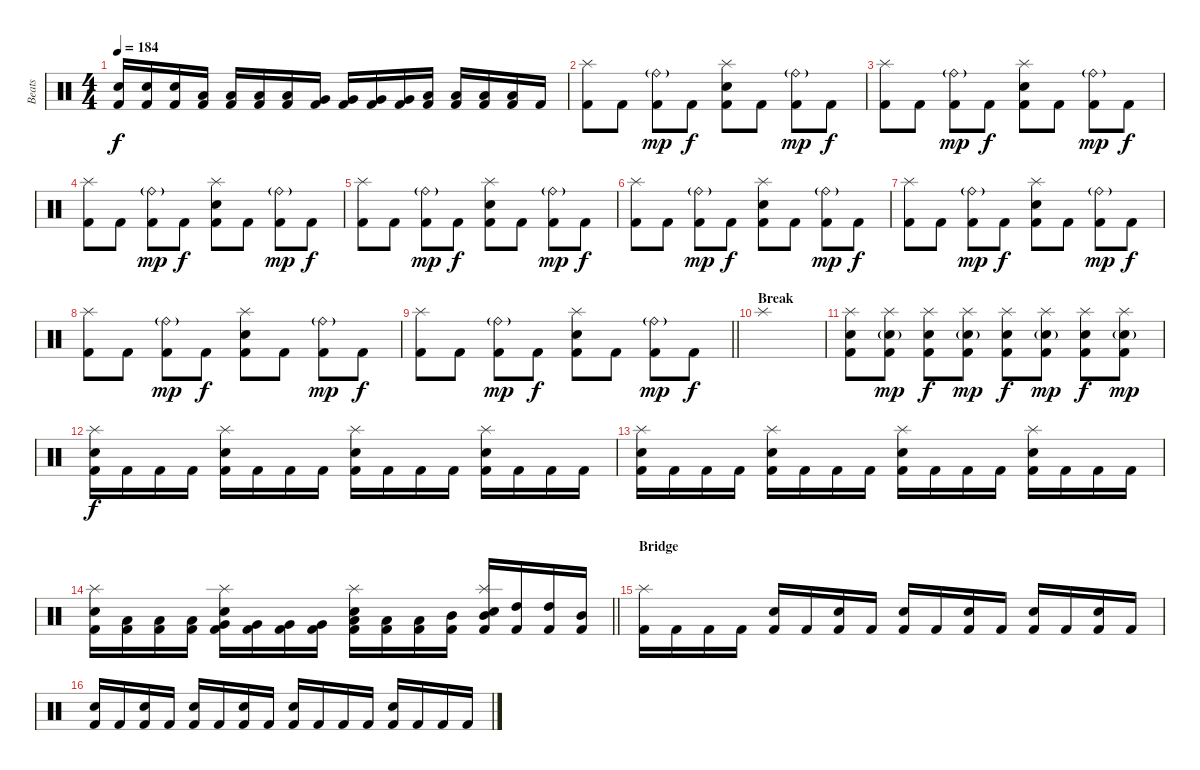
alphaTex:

\track ("Beats" "Beats") {instrument percussion}
\staff {score}
\articulation defaults
\ts (4 4)
\tempo 184
\clef neutral
\ks c
("Electric Snare (hit)" "Kick (hit) 2").16{dy f} ("Electric Snare (hit)" "Kick (hit) 2").16 ("Electric Snare (hit)" "Kick (hit) 2").16 ("Low Floor Tom (hit)" "Kick (hit) 2").16 ("Low Floor Tom (hit)" "Kick (hit) 2").16 ("Low Floor Tom (hit)" "Kick (hit) 2").16 ("Low Floor Tom (hit)" "Kick (hit) 2").16 ("Very Low Tom (hit)" "Kick (hit) 2").16 ("Very Low Tom (hit)" "Kick (hit) 2").16 ("Very Low Tom (hit)" "Kick (hit) 2").16 ("Very Low Tom (hit)" "Kick (hit) 2").16 ("Low Tom (hit)" "Kick (hit) 2").16 ("Low Tom (hit)" "Kick (hit) 2").16 ("Low Tom (hit)" "Kick (hit) 2").16 ("Low Tom (hit)" "Kick (hit) 2").16 "Kick (hit) 2".16 |
("Splash (hit)" "Kick (hit) 2").8 "Kick (hit) 2".8 ("Ride (bell)"{g} "Kick (hit) 2").8{dy mp} "Kick (hit) 2".8{dy f} ("Splash (hit)" "Electric Snare (hit)" "Kick (hit) 2").8 "Kick (hit) 2".8 ("Ride (bell)"{g} "Kick (hit) 2").8{dy mp} "Kick (hit) 2".8{dy f} |
("Splash (hit)" "Kick (hit) 2").8 "Kick (hit) 2".8 ("Ride (bell)"{g} "Kick (hit) 2").8{dy mp} "Kick (hit) 2".8{dy f} ("Splash (hit)" "Electric Snare (hit)" "Kick (hit) 2").8 "Kick (hit) 2".8 ("Ride (bell)"{g} "Kick (hit) 2").8{dy mp} "Kick (hit) 2".8{dy f} |
("Splash (hit)" "Kick (hit) 2").8 "Kick (hit) 2".8 ("Ride (bell)"{g} "Kick (hit) 2").8{dy mp} "Kick (hit) 2".8{dy f} ("Splash (hit)" "Electric Snare (hit)" "Kick (hit) 2").8 "Kick (hit) 2".8 ("Ride (bell)"{g} "Kick (hit) 2").8{dy mp} "Kick (hit) 2".8{dy f} |
("Splash (hit)" "Kick (hit) 2").8 "Kick (hit) 2".8 ("Ride (bell)"{g} "Kick (hit) 2").8{dy mp} "Kick (hit) 2".8{dy f} ("Splash (hit)" "Electric Snare (hit)" "Kick (hit) 2").8 "Kick (hit) 2".8 ("Ride (bell)"{g} "Kick (hit) 2").8{dy mp} "Kick (hit) 2".8{dy f} |
("Splash (hit)" "Kick (hit) 2").8 "Kick (hit) 2".8 ("Ride (bell)"{g} "Kick (hit) 2").8{dy mp} "Kick (hit) 2".8{dy f} ("Splash (hit)" "Electric Snare (hit)" "Kick (hit) 2").8 "Kick (hit) 2".8 ("Ride (bell)"{g} "Kick (hit) 2").8{dy mp} "Kick (hit) 2".8{dy f} |
("Splash (hit)" "Kick (hit) 2").8 "Kick (hit) 2".8 ("Ride (bell)"{g} "Kick (hit) 2").8{dy mp} "Kick (hit) 2".8{dy f} ("Splash (hit)" "Electric Snare (hit)" "Kick (hit) 2").8 "Kick (hit) 2".8 ("Ride (bell)"{g} "Kick (hit) 2").8{dy mp} "Kick (hit) 2".8{dy f} |
("Splash (hit)" "Kick (hit) 2").8 "Kick (hit) 2".8 ("Ride (bell)"{g} "Kick (hit) 2").8{dy mp} "Kick (hit) 2".8{dy f} ("Splash (hit)" "Electric Snare (hit)" "Kick (hit) 2").8 "Kick (hit) 2".8 ("Ride (bell)"{g} "Kick (hit) 2").8{dy mp} "Kick (hit) 2".8{dy f} |
\barLineRight lightlight
("Splash (hit)" "Kick (hit) 2").8 "Kick (hit) 2".8 ("Ride (bell)"{g} "Kick (hit) 2").8{dy mp} "Kick (hit) 2".8{dy f} ("Splash (hit)" "Electric Snare (hit)" "Kick (hit) 2").8 "Kick (hit) 2".8 ("Ride (bell)"{g} "Kick (hit) 2").8{dy mp} "Kick (hit) 2".8{dy f} |
\section ("" "Break")
"Splash (hit)".1 |
("Splash (hit)" "Electric Snare (hit)" "Kick (hit) 2").8 ("Splash (hit)" "Electric Snare (hit)"{g} "Kick (hit) 2").8{dy mp} ("Splash (hit)" "Electric Snare (hit)" "Kick (hit) 2").8{dy f} ("Splash (hit)" "Electric Snare (hit)"{g} "Kick (hit) 2").8{dy mp} ("Splash (hit)" "Electric Snare (hit)" "Kick (hit) 2").8{dy f} ("Splash (hit)" "Electric Snare (hit)"{g} "Kick (hit) 2").8{dy mp} ("Splash (hit)" "Electric Snare (hit)" "Kick (hit) 2").8{dy f} ("Splash (hit)" "Electric Snare (hit)"{g} "Kick (hit) 2").8{dy mp} |
("Splash (hit)" "Electric Snare (hit)" "Kick (hit) 2").16{dy f} "Kick (hit) 2".16 "Kick (hit) 2".16 "Kick (hit) 2".16 ("Splash (hit)" "Electric Snare (hit)" "Kick (hit) 2").16 "Kick (hit) 2".16 "Kick (hit) 2".16 "Kick (hit) 2".16 ("Splash (hit)" "Electric Snare (hit)" "Kick (hit) 2").16 "Kick (hit) 2".16 "Kick (hit) 2".16 "Kick (hit) 2".16 ("Splash (hit)" "Electric Snare (hit)" "Kick (hit) 2").16 "Kick (hit) 2".16 "Kick (hit) 2".16 "Kick (hit) 2".16 |
("Splash (hit)" "Electric Snare (hit)" "Kick (hit) 2").16 "Kick (hit) 2".16 "Kick (hit) 2".16 "Kick (hit) 2".16 ("Splash (hit)" "Electric Snare (hit)" "Kick (hit) 2").16 "Kick (hit) 2".16 "Kick (hit) 2".16 "Kick (hit) 2".16 ("Splash (hit)" "Electric Snare (hit)" "Kick (hit) 2").16 "Kick (hit) 2".16 "Kick (hit) 2".16 "Kick (hit) 2".16 ("Splash (hit)" "Electric Snare (hit)" "Kick (hit) 2").16 "Kick (hit) 2".16 "Kick (hit) 2".16 "Kick (hit) 2".16 |
\barLineRight lightlight
("Splash (hit)" "Electric Snare (hit)" "Kick (hit) 2").16 ("Low Tom (hit)" "Kick (hit) 2").16 ("Low Tom (hit)" "Kick (hit) 2").16 ("Low Tom (hit)" "Kick (hit) 2").16 ("Splash (hit)" "Very Low Tom (hit)" "Electric Snare (hit)" "Kick (hit) 2").16 ("Very Low Tom (hit)" "Kick (hit) 2").16 ("Very Low Tom (hit)" "Kick (hit) 2").16 ("Very Low Tom (hit)" "Kick (hit) 2").16 ("Splash (hit)" "Low Floor Tom (hit)" "Electric Snare (hit)" "Kick (hit) 2").16 ("Low Floor Tom (hit)" "Kick (hit) 2").16 ("Low Floor Tom (hit)" "Kick (hit) 2").16 ("Mid Tom (hit)" "Kick (hit) 2").16 ("Splash (hit)" "Mid Tom (hit)" "Electric Snare (hit)" "Kick (hit) 2").16 ("High Tom (hit)" "Kick (hit) 2").16 ("High Tom (hit)" "Kick (hit) 2").16 ("Mid Tom (hit)" "Kick (hit) 2").16 |
\section ("" "Bridge")
("Splash (hit)" "Kick (hit) 2").16 "Kick (hit) 2".16 "Kick (hit) 2".16 "Kick (hit) 2".16 ("Electric Snare (hit)" "Kick (hit) 2").16 "Kick (hit) 2".16 ("Electric Snare (hit)" "Kick (hit) 2").16 "Kick (hit) 2".16 ("Electric Snare (hit)" "Kick (hit) 2").16 "Kick (hit) 2".16 ("Electric Snare (hit)" "Kick (hit) 2").16 "Kick (hit) 2".16 ("Electric Snare (hit)" "Kick (hit) 2").16 "Kick (hit) 2".16 ("Electric Snare (hit)" "Kick (hit) 2").16 "Kick (hit) 2".16 |
("Electric Snare (hit)" "Kick (hit) 2").16 "Kick (hit) 2".16 ("Electric Snare (hit)" "Kick (hit) 2").16 "Kick (hit) 2".16 ("Electric Snare (hit)" "Kick (hit) 2").16 "Kick (hit) 2".16 ("Electric Snare (hit)" "Kick (hit) 2").16 "Kick (hit) 2".16 ("Electric Snare (hit)" "Kick (hit) 2").16 "Kick (hit) 2".16 "Kick (hit) 2".16 "Kick (hit) 2".16 ("Electric Snare (hit)" "Kick (hit) 2").16 "Kick (hit) 2".16 "Kick (hit) 2".16 "Kick (hit) 2".16
